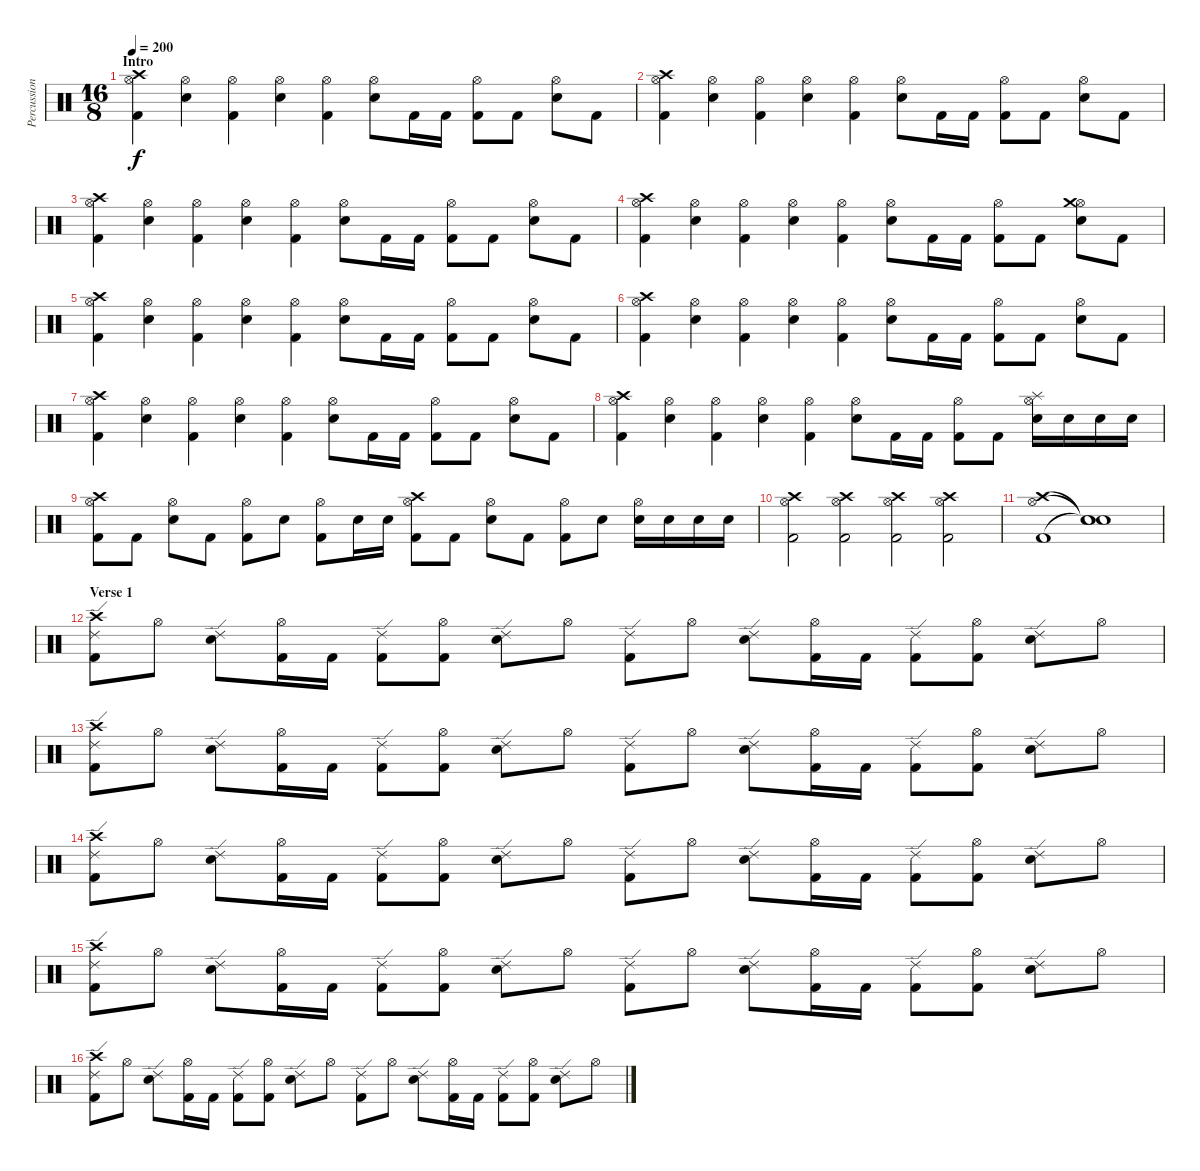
\track ("Percussions" "Percussion") {instrument percussion}
\staff {score}
\articulation defaults
\ts (16 8)
\section ("" "Intro")
\tempo 200
\clef neutral
\ks c
("Hi-Hat (open)" "Crash high (hit)" "Kick (hit) 2").4{dy f} ("Hi-Hat (open)" "Electric Snare (hit)").4 ("Hi-Hat (open)" "Kick (hit) 2").4 ("Hi-Hat (open)" "Electric Snare (hit)").4 ("Hi-Hat (open)" "Kick (hit) 2").4 ("Hi-Hat (open)" "Electric Snare (hit)").8 "Kick (hit) 2".16 "Kick (hit) 2".16 ("Hi-Hat (open)" "Kick (hit) 2").8 "Kick (hit) 2".8 ("Hi-Hat (open)" "Electric Snare (hit)").8 "Kick (hit) 2".8 |
("Hi-Hat (open)" "Crash high (hit)" "Kick (hit) 2").4 ("Hi-Hat (open)" "Electric Snare (hit)").4 ("Hi-Hat (open)" "Kick (hit) 2").4 ("Hi-Hat (open)" "Electric Snare (hit)").4 ("Hi-Hat (open)" "Kick (hit) 2").4 ("Hi-Hat (open)" "Electric Snare (hit)").8 "Kick (hit) 2".16 "Kick (hit) 2".16 ("Hi-Hat (open)" "Kick (hit) 2").8 "Kick (hit) 2".8 ("Hi-Hat (open)" "Electric Snare (hit)").8 "Kick (hit) 2".8 |
("Hi-Hat (open)" "Crash high (hit)" "Kick (hit) 2").4 ("Hi-Hat (open)" "Electric Snare (hit)").4 ("Hi-Hat (open)" "Kick (hit) 2").4 ("Hi-Hat (open)" "Electric Snare (hit)").4 ("Hi-Hat (open)" "Kick (hit) 2").4 ("Hi-Hat (open)" "Electric Snare (hit)").8 "Kick (hit) 2".16 "Kick (hit) 2".16 ("Hi-Hat (open)" "Kick (hit) 2").8 "Kick (hit) 2".8 ("Hi-Hat (open)" "Electric Snare (hit)").8 "Kick (hit) 2".8 |
("Hi-Hat (open)" "Crash high (hit)" "Kick (hit) 2").4 ("Hi-Hat (open)" "Electric Snare (hit)").4 ("Hi-Hat (open)" "Kick (hit) 2").4 ("Hi-Hat (open)" "Electric Snare (hit)").4 ("Hi-Hat (open)" "Kick (hit) 2").4 ("Hi-Hat (open)" "Electric Snare (hit)").8 "Kick (hit) 2".16 "Kick (hit) 2".16 ("Hi-Hat (open)" "Kick (hit) 2").8 "Kick (hit) 2".8 ("Hi-Hat (open)" "Crash medium (hit)" "Electric Snare (hit)").8 "Kick (hit) 2".8 |
("Hi-Hat (open)" "Crash high (hit)" "Kick (hit) 2").4 ("Hi-Hat (open)" "Electric Snare (hit)").4 ("Hi-Hat (open)" "Kick (hit) 2").4 ("Hi-Hat (open)" "Electric Snare (hit)").4 ("Hi-Hat (open)" "Kick (hit) 2").4 ("Hi-Hat (open)" "Electric Snare (hit)").8 "Kick (hit) 2".16 "Kick (hit) 2".16 ("Hi-Hat (open)" "Kick (hit) 2").8 "Kick (hit) 2".8 ("Hi-Hat (open)" "Electric Snare (hit)").8 "Kick (hit) 2".8 |
("Hi-Hat (open)" "Crash high (hit)" "Kick (hit) 2").4 ("Hi-Hat (open)" "Electric Snare (hit)").4 ("Hi-Hat (open)" "Kick (hit) 2").4 ("Hi-Hat (open)" "Electric Snare (hit)").4 ("Hi-Hat (open)" "Kick (hit) 2").4 ("Hi-Hat (open)" "Electric Snare (hit)").8 "Kick (hit) 2".16 "Kick (hit) 2".16 ("Hi-Hat (open)" "Kick (hit) 2").8 "Kick (hit) 2".8 ("Hi-Hat (open)" "Electric Snare (hit)").8 "Kick (hit) 2".8 |
("Hi-Hat (open)" "Crash high (hit)" "Kick (hit) 2").4 ("Hi-Hat (open)" "Electric Snare (hit)").4 ("Hi-Hat (open)" "Kick (hit) 2").4 ("Hi-Hat (open)" "Electric Snare (hit)").4 ("Hi-Hat (open)" "Kick (hit) 2").4 ("Hi-Hat (open)" "Electric Snare (hit)").8 "Kick (hit) 2".16 "Kick (hit) 2".16 ("Hi-Hat (open)" "Kick (hit) 2").8 "Kick (hit) 2".8 ("Hi-Hat (open)" "Electric Snare (hit)").8 "Kick (hit) 2".8 |
("Hi-Hat (open)" "Crash high (hit)" "Kick (hit) 2").4 ("Hi-Hat (open)" "Electric Snare (hit)").4 ("Hi-Hat (open)" "Kick (hit) 2").4 ("Hi-Hat (open)" "Electric Snare (hit)").4 ("Hi-Hat (open)" "Kick (hit) 2").4 ("Hi-Hat (open)" "Electric Snare (hit)").8 "Kick (hit) 2".16 "Kick (hit) 2".16 ("Hi-Hat (open)" "Kick (hit) 2").8 "Kick (hit) 2".8 ("Hi-Hat (open)" "Splash (hit)" "Electric Snare (hit)").16 "Electric Snare (hit)".16 "Electric Snare (hit)".16 "Electric Snare (hit)".16 |
("Crash high (hit)" "Hi-Hat (open)" "Kick (hit) 2").8 "Kick (hit) 2".8 ("Hi-Hat (open)" "Electric Snare (hit)").8 "Kick (hit) 2".8 ("Hi-Hat (open)" "Kick (hit) 2").8 "Electric Snare (hit)".8 ("Hi-Hat (open)" "Kick (hit) 2").8 "Electric Snare (hit)".16 "Electric Snare (hit)".16 ("Hi-Hat (open)" "Crash high (hit)" "Kick (hit) 2").8 "Kick (hit) 2".8 ("Hi-Hat (open)" "Electric Snare (hit)").8 "Kick (hit) 2".8 ("Hi-Hat (open)" "Kick (hit) 2").8 "Electric Snare (hit)".8 ("Hi-Hat (open)" "Electric Snare (hit)").16 "Electric Snare (hit)".16 "Electric Snare (hit)".16 "Electric Snare (hit)".16 |
("Crash high (hit)" "Hi-Hat (open)" "Kick (hit) 2").2 ("Crash high (hit)" "Hi-Hat (open)" "Kick (hit) 2").2 ("Crash high (hit)" "Hi-Hat (open)" "Kick (hit) 2").2 ("Crash high (hit)" "Hi-Hat (open)" "Kick (hit) 2").2 |
("Crash high (hit)" "Hi-Hat (open)" "Kick (hit) 2").1 ("Snare (hit)"{t} "Snare (hit)"{t} "Snare (hit)"{t}).1 |
\section ("" "Verse 1")
("Ride (edge) 2" "Crash high (hit)" "Kick (hit) 2").8 "Hi-Hat (open)".8 ("Ride (edge) 2" "Electric Snare (hit)").8 ("Hi-Hat (open)" "Kick (hit) 2").16 "Kick (hit) 2".16 ("Ride (edge) 2" "Kick (hit) 2").8 ("Hi-Hat (open)" "Kick (hit) 2").8 ("Ride (edge) 2" "Electric Snare (hit)").8 "Hi-Hat (open)".8 ("Ride (edge) 2" "Kick (hit) 2").8 "Hi-Hat (open)".8 ("Ride (edge) 2" "Electric Snare (hit)").8 ("Hi-Hat (open)" "Kick (hit) 2").16 "Kick (hit) 2".16 ("Ride (edge) 2" "Kick (hit) 2").8 ("Hi-Hat (open)" "Kick (hit) 2").8 ("Ride (edge) 2" "Electric Snare (hit)").8 "Hi-Hat (open)".8 |
("Ride (edge) 2" "Crash high (hit)" "Kick (hit) 2").8 "Hi-Hat (open)".8 ("Ride (edge) 2" "Electric Snare (hit)").8 ("Hi-Hat (open)" "Kick (hit) 2").16 "Kick (hit) 2".16 ("Ride (edge) 2" "Kick (hit) 2").8 ("Hi-Hat (open)" "Kick (hit) 2").8 ("Ride (edge) 2" "Electric Snare (hit)").8 "Hi-Hat (open)".8 ("Ride (edge) 2" "Kick (hit) 2").8 "Hi-Hat (open)".8 ("Ride (edge) 2" "Electric Snare (hit)").8 ("Hi-Hat (open)" "Kick (hit) 2").16 "Kick (hit) 2".16 ("Ride (edge) 2" "Kick (hit) 2").8 ("Hi-Hat (open)" "Kick (hit) 2").8 ("Ride (edge) 2" "Electric Snare (hit)").8 "Hi-Hat (open)".8 |
("Ride (edge) 2" "Crash high (hit)" "Kick (hit) 2").8 "Hi-Hat (open)".8 ("Ride (edge) 2" "Electric Snare (hit)").8 ("Hi-Hat (open)" "Kick (hit) 2").16 "Kick (hit) 2".16 ("Ride (edge) 2" "Kick (hit) 2").8 ("Hi-Hat (open)" "Kick (hit) 2").8 ("Ride (edge) 2" "Electric Snare (hit)").8 "Hi-Hat (open)".8 ("Ride (edge) 2" "Kick (hit) 2").8 "Hi-Hat (open)".8 ("Ride (edge) 2" "Electric Snare (hit)").8 ("Hi-Hat (open)" "Kick (hit) 2").16 "Kick (hit) 2".16 ("Ride (edge) 2" "Kick (hit) 2").8 ("Hi-Hat (open)" "Kick (hit) 2").8 ("Ride (edge) 2" "Electric Snare (hit)").8 "Hi-Hat (open)".8 |
("Ride (edge) 2" "Crash high (hit)" "Kick (hit) 2").8 "Hi-Hat (open)".8 ("Ride (edge) 2" "Electric Snare (hit)").8 ("Hi-Hat (open)" "Kick (hit) 2").16 "Kick (hit) 2".16 ("Ride (edge) 2" "Kick (hit) 2").8 ("Hi-Hat (open)" "Kick (hit) 2").8 ("Ride (edge) 2" "Electric Snare (hit)").8 "Hi-Hat (open)".8 ("Ride (edge) 2" "Kick (hit) 2").8 "Hi-Hat (open)".8 ("Ride (edge) 2" "Electric Snare (hit)").8 ("Hi-Hat (open)" "Kick (hit) 2").16 "Kick (hit) 2".16 ("Ride (edge) 2" "Kick (hit) 2").8 ("Hi-Hat (open)" "Kick (hit) 2").8 ("Ride (edge) 2" "Electric Snare (hit)").8 "Hi-Hat (open)".8 |
("Ride (edge) 2" "Crash high (hit)" "Kick (hit) 2").8 "Hi-Hat (open)".8 ("Ride (edge) 2" "Electric Snare (hit)").8 ("Hi-Hat (open)" "Kick (hit) 2").16 "Kick (hit) 2".16 ("Ride (edge) 2" "Kick (hit) 2").8 ("Hi-Hat (open)" "Kick (hit) 2").8 ("Ride (edge) 2" "Electric Snare (hit)").8 "Hi-Hat (open)".8 ("Ride (edge) 2" "Kick (hit) 2").8 "Hi-Hat (open)".8 ("Ride (edge) 2" "Electric Snare (hit)").8 ("Hi-Hat (open)" "Kick (hit) 2").16 "Kick (hit) 2".16 ("Ride (edge) 2" "Kick (hit) 2").8 ("Hi-Hat (open)" "Kick (hit) 2").8 ("Ride (edge) 2" "Electric Snare (hit)").8 "Hi-Hat (open)".8
